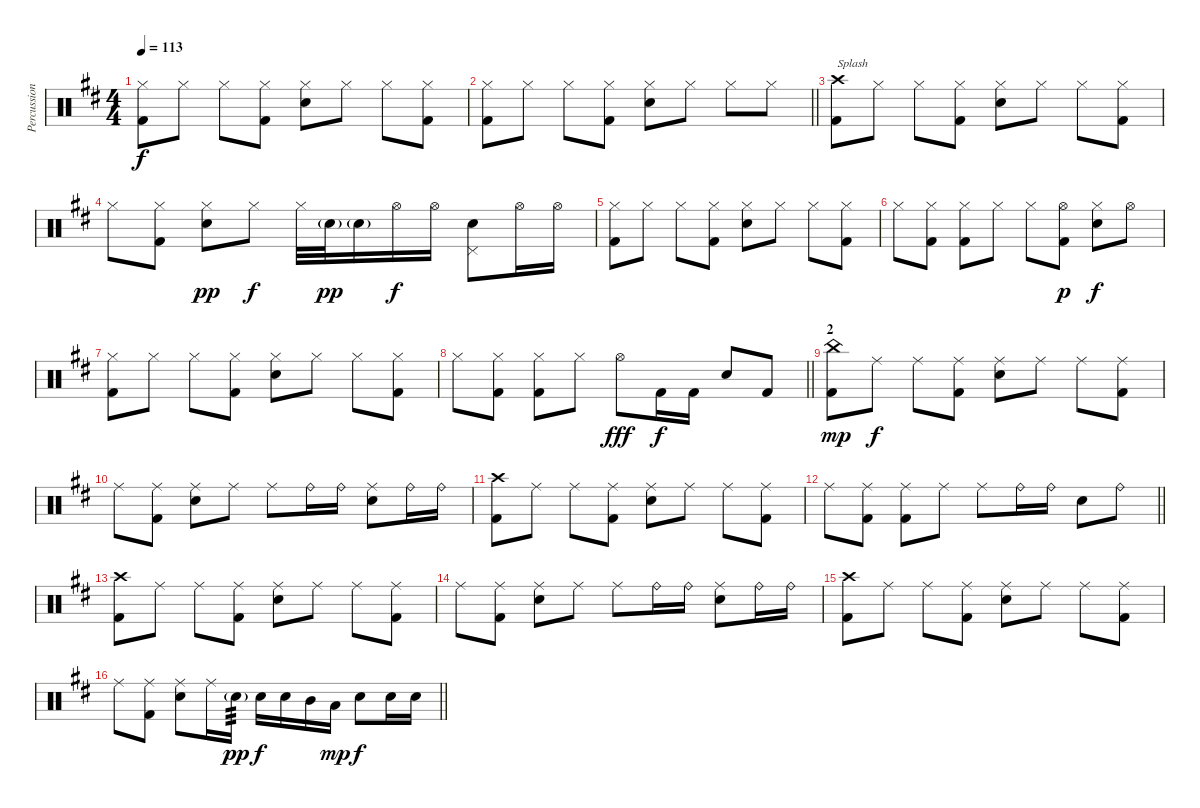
\track ("Percussion" "Percussion") {instrument percussion}
\staff {score}
\articulation defaults
\ts (4 4)
\tempo 113
\clef neutral
\ks bminor
("Hi-Hat (closed)" "Kick (hit) 2").8{dy f} "Hi-Hat (closed)".8 "Hi-Hat (closed)".8 ("Hi-Hat (closed)" "Kick (hit) 2").8 ("Hi-Hat (closed)" "Snare (hit) 2").8 "Hi-Hat (closed)".8 "Hi-Hat (closed)".8 ("Hi-Hat (closed)" "Kick (hit) 2").8 |
\barLineRight lightlight
("Hi-Hat (closed)" "Kick (hit) 2").8 "Hi-Hat (closed)".8 "Hi-Hat (closed)".8 ("Hi-Hat (closed)" "Kick (hit) 2").8 ("Hi-Hat (closed)" "Snare (hit) 2").8 "Hi-Hat (closed)".8 "Hi-Hat (closed)".8 "Hi-Hat (closed)".8 |
\section ("" "")
("Crash high (hit)" "Kick (hit) 2").8{txt "Splash"} "Hi-Hat (closed)".8 "Hi-Hat (closed)".8 ("Hi-Hat (closed)" "Kick (hit) 2").8 ("Hi-Hat (closed)" "Snare (hit) 2").8 "Hi-Hat (closed)".8 "Hi-Hat (closed)".8 ("Hi-Hat (closed)" "Kick (hit) 2").8 |
"Hi-Hat (closed)".8 ("Hi-Hat (closed)" "Kick (hit) 2").8 ("Hi-Hat (closed)" "Snare (hit) 2").8{dy pp} "Hi-Hat (closed)".8{dy f} "Hi-Hat (closed)".32 "Snare (hit) 2"{g}.32{dy pp} "Snare (hit) 2"{g}.16 "Hi-Hat (open)".16{dy f} "Hi-Hat (open)".16 ("Pedal Hi-Hat (hit)" "Snare (hit) 2").8 "Hi-Hat (open)".16 "Hi-Hat (open)".16 |
("Hi-Hat (closed)" "Kick (hit) 2").8 "Hi-Hat (closed)".8 "Hi-Hat (closed)".8 ("Hi-Hat (closed)" "Kick (hit) 2").8 ("Hi-Hat (closed)" "Snare (hit) 2").8 "Hi-Hat (closed)".8 "Hi-Hat (closed)".8 ("Hi-Hat (closed)" "Kick (hit) 2").8 |
"Hi-Hat (closed)".8 ("Hi-Hat (closed)" "Kick (hit) 2").8 ("Hi-Hat (closed)" "Kick (hit) 2").8 "Hi-Hat (closed)".8 "Hi-Hat (closed)".8 ("Hi-Hat (open)" "Kick (hit) 2").8{dy p} ("Hi-Hat (closed)" "Snare (hit) 2").8{dy f} "Hi-Hat (open)".8 |
("Hi-Hat (closed)" "Kick (hit) 2").8 "Hi-Hat (closed)".8 "Hi-Hat (closed)".8 ("Hi-Hat (closed)" "Kick (hit) 2").8 ("Hi-Hat (closed)" "Snare (hit) 2").8 "Hi-Hat (closed)".8 "Hi-Hat (closed)".8 ("Hi-Hat (closed)" "Kick (hit) 2").8 |
\barLineRight lightlight "Hi-Hat (closed)".8
("Hi-Hat (closed)" "Kick (hit) 2").8 ("Hi-Hat (closed)" "Kick (hit) 2").8 "Hi-Hat (closed)".8 "Hi-Hat (open)".8{dy fff} "Kick (hit) 2".16{dy f} "Kick (hit) 2".16 "Snare (hit) 2".8 "Kick (hit) 2".8 |
\section ("" "2")
("China (hit)" "Kick (hit) 2").8{dy mp} "Ride (middle)".8{dy f} "Ride (middle)".8 ("Ride (middle)" "Kick (hit) 2").8 ("Ride (middle)" "Snare (hit) 2").8 "Ride (middle)".8 "Ride (middle)".8 ("Ride (middle)" "Kick (hit) 2").8 |
"Ride (middle)".8 ("Ride (middle)" "Kick (hit) 2").8 ("Ride (middle)" "Snare (hit) 2").8 "Ride (middle)".8 "Ride (middle)".8 "Ride (bell)".16 "Ride (bell)".16 ("Ride (middle)" "Snare (hit) 2").8 "Ride (bell)".16 "Ride (bell)".16 |
("Crash high (hit)" "Kick (hit) 2").8 "Ride (middle)".8 "Ride (middle)".8 ("Ride (middle)" "Kick (hit) 2").8 ("Ride (middle)" "Snare (hit) 2").8 "Ride (middle)".8 "Ride (middle)".8 ("Ride (middle)" "Kick (hit) 2").8 |
\barLineRight lightlight "Ride (middle)".8
("Ride (middle)" "Kick (hit) 2").8 ("Ride (middle)" "Kick (hit) 2").8 "Ride (middle)".8 "Ride (middle)".8 "Ride (bell)".16 "Ride (bell)".16 "Snare (hit) 2".8 "Ride (bell)".8 |
\section ("" "")
("Crash high (hit)" "Kick (hit) 2").8 "Ride (middle)".8 "Ride (middle)".8 ("Ride (middle)" "Kick (hit) 2").8 ("Ride (middle)" "Snare (hit) 2").8 "Ride (middle)".8 "Ride (middle)".8 ("Ride (middle)" "Kick (hit) 2").8 |
"Ride (middle)".8 ("Ride (middle)" "Kick (hit) 2").8 ("Ride (middle)" "Snare (hit) 2").8 "Ride (middle)".8 "Ride (middle)".8 "Ride (bell)".16 "Ride (bell)".16 ("Ride (middle)" "Snare (hit) 2").8 "Ride (bell)".16 "Ride (bell)".16 |
("Crash high (hit)" "Kick (hit) 2").8 "Ride (middle)".8 "Ride (middle)".8 ("Ride (middle)" "Kick (hit) 2").8 ("Ride (middle)" "Snare (hit) 2").8 "Ride (middle)".8 "Ride (middle)".8 ("Ride (middle)" "Kick (hit) 2").8 |
\barLineRight lightlight "Ride (middle)".8
("Ride (middle)" "Kick (hit) 2").8 ("Ride (middle)" "Snare (hit) 2").8 "Ride (middle)".16 "Snare (hit) 2"{g}.16{tp 3 dy pp} "Snare (hit) 2".16{dy f} "Snare (hit) 2".16 "Mid Tom (hit)".16 "Low Floor Tom (hit)".16{dy mp} "Snare (hit) 2".8{dy f} "Snare (hit) 2".16 "Snare (hit) 2".16
